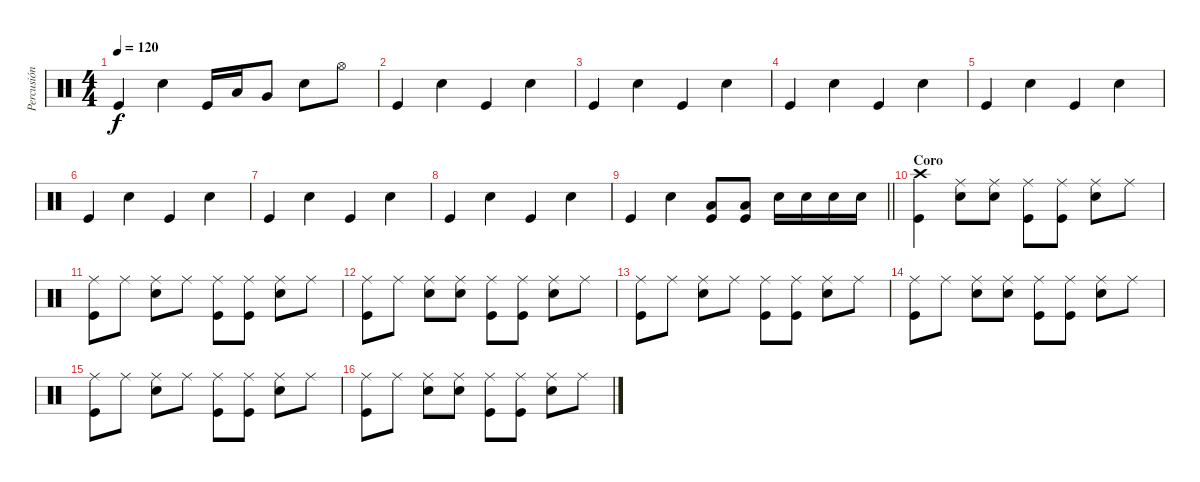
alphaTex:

\track ("Percusión" "Percusión") {instrument percussion}
\staff {score}
\articulation defaults
\ts (4 4)
\tempo 120
\clef neutral
\ks c "Kick (hit)".4{dy f} "Snare (hit) 2".4 "Kick (hit)".16 "Low Tom (hit)".16 "Very Low Tom (hit)".8 "Snare (hit) 2".8 "Hi-Hat (open)".8
|
"Kick (hit)".4 "Snare (hit) 2".4 "Kick (hit)".4 "Snare (hit) 2".4 |
"Kick (hit)".4 "Snare (hit) 2".4 "Kick (hit)".4 "Snare (hit) 2".4 |
"Kick (hit)".4 "Snare (hit) 2".4 "Kick (hit)".4 "Snare (hit) 2".4 |
"Kick (hit)".4 "Snare (hit) 2".4 "Kick (hit)".4 "Snare (hit) 2".4 |
"Kick (hit)".4 "Snare (hit) 2".4 "Kick (hit)".4 "Snare (hit) 2".4 |
"Kick (hit)".4 "Snare (hit) 2".4 "Kick (hit)".4 "Snare (hit) 2".4 |
"Kick (hit)".4 "Snare (hit) 2".4 "Kick (hit)".4 "Snare (hit) 2".4 |
\barLineRight lightlight "Kick (hit)".4 "Snare (hit) 2".4
("Kick (hit)" "Low Tom (hit)").8 ("Kick (hit)" "Low Tom (hit)").8 "Snare (hit) 2".16 "Snare (hit) 2".16 "Snare (hit) 2".16 "Snare (hit) 2".16 |
\section ("" "Coro")
("Crash high (hit)" "Kick (hit)").4 ("Ride (middle)" "Snare (hit) 2").8 ("Ride (middle)" "Snare (hit) 2").8 ("Ride (middle)" "Kick (hit)").8 ("Ride (middle)" "Kick (hit)").8 ("Ride (middle)" "Snare (hit) 2").8 "Ride (middle)".8 |
("Ride (middle)" "Kick (hit)").8 "Ride (middle)".8 ("Ride (middle)" "Snare (hit) 2").8 "Ride (middle)".8 ("Ride (middle)" "Kick (hit)").8 ("Ride (middle)" "Kick (hit)").8 ("Ride (middle)" "Snare (hit) 2").8 "Ride (middle)".8 |
("Ride (middle)" "Kick (hit)").8 "Ride (middle)".8 ("Ride (middle)" "Snare (hit) 2").8 ("Ride (middle)" "Snare (hit) 2").8 ("Ride (middle)" "Kick (hit)").8 ("Ride (middle)" "Kick (hit)").8 ("Ride (middle)" "Snare (hit) 2").8 "Ride (middle)".8 |
("Ride (middle)" "Kick (hit)").8 "Ride (middle)".8 ("Ride (middle)" "Snare (hit) 2").8 "Ride (middle)".8 ("Ride (middle)" "Kick (hit)").8 ("Ride (middle)" "Kick (hit)").8 ("Ride (middle)" "Snare (hit) 2").8 "Ride (middle)".8 |
("Ride (middle)" "Kick (hit)").8 "Ride (middle)".8 ("Ride (middle)" "Snare (hit) 2").8 ("Ride (middle)" "Snare (hit) 2").8 ("Ride (middle)" "Kick (hit)").8 ("Ride (middle)" "Kick (hit)").8 ("Ride (middle)" "Snare (hit) 2").8 "Ride (middle)".8 |
("Ride (middle)" "Kick (hit)").8 "Ride (middle)".8 ("Ride (middle)" "Snare (hit) 2").8 "Ride (middle)".8 ("Ride (middle)" "Kick (hit)").8 ("Ride (middle)" "Kick (hit)").8 ("Ride (middle)" "Snare (hit) 2").8 "Ride (middle)".8 |
("Ride (middle)" "Kick (hit)").8 "Ride (middle)".8 ("Ride (middle)" "Snare (hit) 2").8 ("Ride (middle)" "Snare (hit) 2").8 ("Ride (middle)" "Kick (hit)").8 ("Ride (middle)" "Kick (hit)").8 ("Ride (middle)" "Snare (hit) 2").8 "Ride (middle)".8
